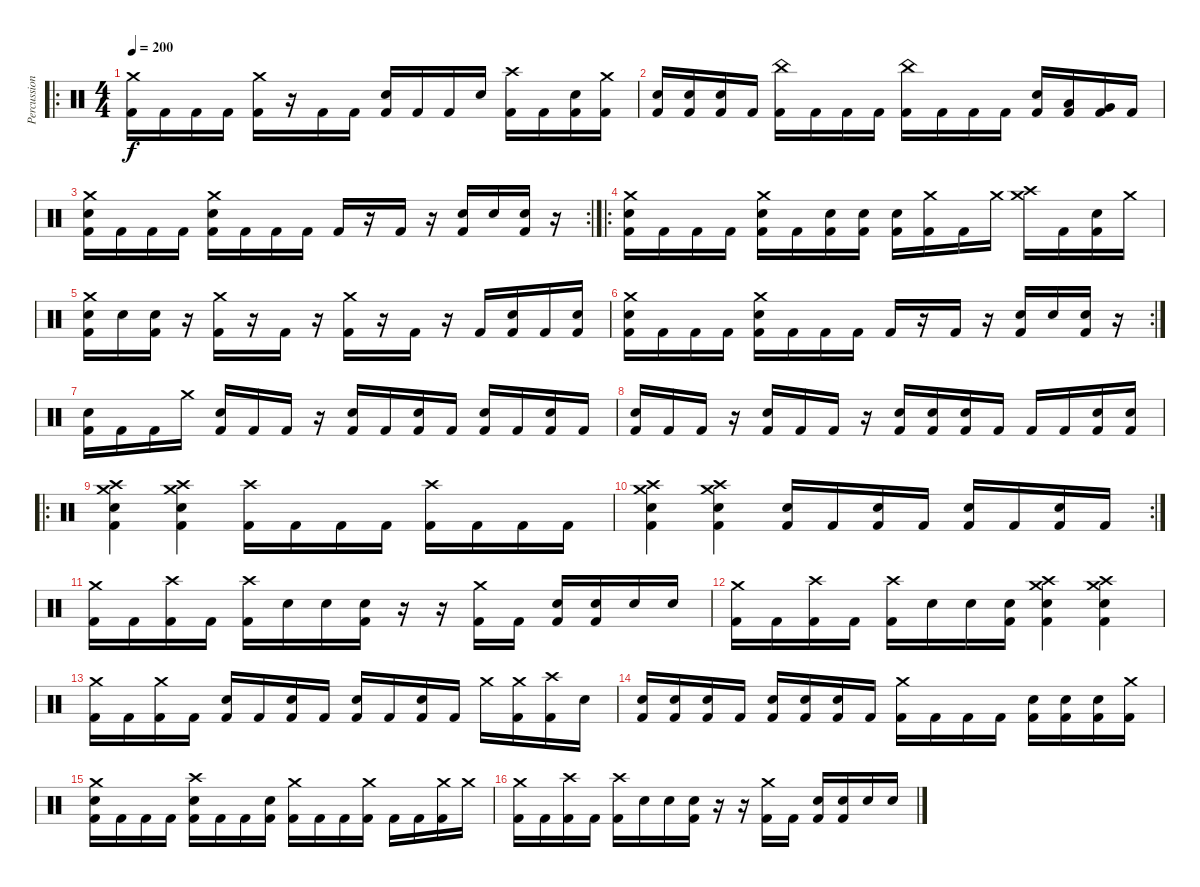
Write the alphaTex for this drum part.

\track ("Percussion" "Percussion") {instrument percussion}
\staff {score}
\articulation defaults
\ro
\ts (4 4)
\tempo 200
\clef neutral
\ks c
("Crash medium (hit)" "Kick (hit) 2").16{dy f} "Kick (hit) 2".16 "Kick (hit) 2".16 "Kick (hit) 2".16 ("Crash medium (hit)" "Kick (hit) 2").16 r.16 "Kick (hit) 2".16 "Kick (hit) 2".16 ("Snare (hit) 2" "Kick (hit) 2").16 "Kick (hit) 2".16 "Kick (hit) 2".16 "Snare (hit) 2".16 ("Crash high (hit)" "Kick (hit) 2").16 "Kick (hit) 2".16 ("Snare (hit) 2" "Kick (hit) 2").16 ("Crash medium (hit)" "Kick (hit) 2").16 |
("Snare (hit) 2" "Kick (hit) 2").16 ("Snare (hit) 2" "Kick (hit) 2").16 ("Snare (hit) 2" "Kick (hit) 2").16 "Kick (hit) 2".16 ("China (hit)" "Kick (hit) 2").16 "Kick (hit) 2".16 "Kick (hit) 2".16 "Kick (hit) 2".16 ("China (hit)" "Kick (hit) 2").16 "Kick (hit) 2".16 "Kick (hit) 2".16 "Kick (hit) 2".16 ("Snare (hit) 2" "Kick (hit) 2").16 ("Low Tom (hit)" "Kick (hit) 2").16 ("Very Low Tom (hit)" "Kick (hit) 2").16 "Kick (hit) 2".16 |
\rc 2
("Crash medium (hit)" "Snare (hit) 2" "Kick (hit) 2").16 "Kick (hit) 2".16 "Kick (hit) 2".16 "Kick (hit) 2".16 ("Crash medium (hit)" "Snare (hit) 2" "Kick (hit) 2").16 "Kick (hit) 2".16 "Kick (hit) 2".16 "Kick (hit) 2".16 "Kick (hit) 2".16 r.16 "Kick (hit) 2".16 r.16 ("Snare (hit) 2" "Kick (hit) 2").16 "Snare (hit) 2".16 ("Snare (hit) 2" "Kick (hit) 2").16 r.16 |
\ro
("Crash medium (hit)" "Snare (hit) 2" "Kick (hit) 2").16 "Kick (hit) 2".16 "Kick (hit) 2".16 "Kick (hit) 2".16 ("Crash medium (hit)" "Snare (hit) 2" "Kick (hit) 2").16 "Kick (hit) 2".16 ("Snare (hit) 2" "Kick (hit) 2").16 ("Snare (hit) 2" "Kick (hit) 2").16 ("Snare (hit) 2" "Kick (hit) 2").16 ("Crash medium (hit)" "Kick (hit) 2").16 "Kick (hit) 2".16 "Crash medium (hit)".16 ("Crash high (hit)" "Crash medium (hit)").16 "Kick (hit) 2".16 ("Snare (hit) 2" "Kick (hit) 2").16 "Crash medium (hit)".16 |
("Crash medium (hit)" "Snare (hit) 2" "Kick (hit) 2").16 "Snare (hit) 2".16 ("Snare (hit) 2" "Kick (hit) 2").16 r.16 ("Crash medium (hit)" "Kick (hit) 2").16 r.16 "Kick (hit) 2".16 r.16 ("Crash medium (hit)" "Kick (hit) 2").16 r.16 "Kick (hit) 2".16 r.16 "Kick (hit) 2".16 ("Snare (hit) 2" "Kick (hit) 2").16 "Kick (hit) 2".16 ("Snare (hit) 2" "Kick (hit) 2").16 |
\rc 2
("Crash medium (hit)" "Snare (hit) 2" "Kick (hit) 2").16 "Kick (hit) 2".16 "Kick (hit) 2".16 "Kick (hit) 2".16 ("Crash medium (hit)" "Snare (hit) 2" "Kick (hit) 2").16 "Kick (hit) 2".16 "Kick (hit) 2".16 "Kick (hit) 2".16 "Kick (hit) 2".16 r.16 "Kick (hit) 2".16 r.16 ("Snare (hit) 2" "Kick (hit) 2").16 "Snare (hit) 2".16 ("Snare (hit) 2" "Kick (hit) 2").16 r.16 |
("Snare (hit) 2" "Kick (hit) 2").16 "Kick (hit) 2".16 "Kick (hit) 2".16 "Crash medium (hit)".16 ("Snare (hit) 2" "Kick (hit) 2").16 "Kick (hit) 2".16 "Kick (hit) 2".16 r.16 ("Snare (hit) 2" "Kick (hit) 2").16 "Kick (hit) 2".16 ("Snare (hit) 2" "Kick (hit) 2").16 "Kick (hit) 2".16 ("Snare (hit) 2" "Kick (hit) 2").16 "Kick (hit) 2".16 ("Snare (hit) 2" "Kick (hit) 2").16 "Kick (hit) 2".16 |
("Snare (hit) 2" "Kick (hit) 2").16 "Kick (hit) 2".16 "Kick (hit) 2".16 r.16 ("Snare (hit) 2" "Kick (hit) 2").16 "Kick (hit) 2".16 "Kick (hit) 2".16 r.16 ("Snare (hit) 2" "Kick (hit) 2").16 ("Snare (hit) 2" "Kick (hit) 2").16 ("Snare (hit) 2" "Kick (hit) 2").16 "Kick (hit) 2".16 "Kick (hit) 2".16 "Kick (hit) 2".16 ("Snare (hit) 2" "Kick (hit) 2").16 ("Snare (hit) 2" "Kick (hit) 2").16 |
\ro
("Snare (hit) 2" "Crash high (hit)" "Crash medium (hit)" "Kick (hit) 2").4 ("Snare (hit) 2" "Crash high (hit)" "Crash medium (hit)" "Kick (hit) 2").4 ("Crash high (hit)" "Kick (hit) 2").16 "Kick (hit) 2".16 "Kick (hit) 2".16 "Kick (hit) 2".16 ("Crash high (hit)" "Kick (hit) 2").16 "Kick (hit) 2".16 "Kick (hit) 2".16 "Kick (hit) 2".16 |
\rc 2
("Snare (hit) 2" "Crash high (hit)" "Crash medium (hit)" "Kick (hit) 2").4 ("Snare (hit) 2" "Crash high (hit)" "Crash medium (hit)" "Kick (hit) 2").4 ("Snare (hit) 2" "Kick (hit) 2").16 "Kick (hit) 2".16 ("Snare (hit) 2" "Kick (hit) 2").16 "Kick (hit) 2".16 ("Snare (hit) 2" "Kick (hit) 2").16 "Kick (hit) 2".16 ("Snare (hit) 2" "Kick (hit) 2").16 "Kick (hit) 2".16 |
("Crash medium (hit)" "Kick (hit) 2").16 "Kick (hit) 2".16 ("Crash high (hit)" "Kick (hit) 2").16 "Kick (hit) 2".16 ("Crash high (hit)" "Kick (hit) 2").16 "Snare (hit) 2".16 "Snare (hit) 2".16 ("Snare (hit) 2" "Kick (hit) 2").16 r.16 r.16 ("Crash medium (hit)" "Kick (hit) 2").16 "Kick (hit) 2".16 ("Snare (hit) 2" "Kick (hit) 2").16 ("Snare (hit) 2" "Kick (hit) 2").16 "Snare (hit) 2".16 "Snare (hit) 2".16 |
("Crash medium (hit)" "Kick (hit) 2").16 "Kick (hit) 2".16 ("Crash high (hit)" "Kick (hit) 2").16 "Kick (hit) 2".16 ("Crash high (hit)" "Kick (hit) 2").16 "Snare (hit) 2".16 "Snare (hit) 2".16 ("Snare (hit) 2" "Kick (hit) 2").16 ("Snare (hit) 2" "Crash high (hit)" "Crash medium (hit)" "Kick (hit) 2").4 ("Snare (hit) 2" "Crash high (hit)" "Crash medium (hit)" "Kick (hit) 2").4 |
("Crash medium (hit)" "Kick (hit) 2").16 "Kick (hit) 2".16 ("Crash medium (hit)" "Kick (hit) 2").16 "Kick (hit) 2".16 ("Snare (hit) 2" "Kick (hit) 2").16 "Kick (hit) 2".16 ("Snare (hit) 2" "Kick (hit) 2").16 "Kick (hit) 2".16 ("Snare (hit) 2" "Kick (hit) 2").16 "Kick (hit) 2".16 ("Snare (hit) 2" "Kick (hit) 2").16 "Kick (hit) 2".16 "Crash medium (hit)".16 ("Crash medium (hit)" "Kick (hit) 2").16 ("Crash high (hit)" "Kick (hit) 2").16 "Snare (hit) 2".16 |
("Snare (hit) 2" "Kick (hit) 2").16 ("Snare (hit) 2" "Kick (hit) 2").16 ("Snare (hit) 2" "Kick (hit) 2").16 "Kick (hit) 2".16 ("Snare (hit) 2" "Kick (hit) 2").16 ("Snare (hit) 2" "Kick (hit) 2").16 ("Snare (hit) 2" "Kick (hit) 2").16 "Kick (hit) 2".16 ("Crash medium (hit)" "Kick (hit) 2").16 "Kick (hit) 2".16 "Kick (hit) 2".16 "Kick (hit) 2".16 ("Snare (hit) 2" "Kick (hit) 2").16 ("Snare (hit) 2" "Kick (hit) 2").16 ("Snare (hit) 2" "Kick (hit) 2").16 ("Crash medium (hit)" "Kick (hit) 2").16 |
("Snare (hit) 2" "Crash medium (hit)" "Kick (hit) 2").16 "Kick (hit) 2".16 "Kick (hit) 2".16 "Kick (hit) 2".16 ("Snare (hit) 2" "Crash high (hit)" "Kick (hit) 2").16 "Kick (hit) 2".16 "Kick (hit) 2".16 ("Snare (hit) 2" "Kick (hit) 2").16 ("Crash medium (hit)" "Kick (hit) 2").16 "Kick (hit) 2".16 "Kick (hit) 2".16 ("Crash medium (hit)" "Kick (hit) 2").16 "Kick (hit) 2".16 "Kick (hit) 2".16 ("Crash medium (hit)" "Kick (hit) 2").16 "Crash medium (hit)".16 |
("Crash medium (hit)" "Kick (hit) 2").16 "Kick (hit) 2".16 ("Crash high (hit)" "Kick (hit) 2").16 "Kick (hit) 2".16 ("Crash high (hit)" "Kick (hit) 2").16 "Snare (hit) 2".16 "Snare (hit) 2".16 ("Snare (hit) 2" "Kick (hit) 2").16 r.16 r.16 ("Crash medium (hit)" "Kick (hit) 2").16 "Kick (hit) 2".16 ("Snare (hit) 2" "Kick (hit) 2").16 ("Snare (hit) 2" "Kick (hit) 2").16 "Snare (hit) 2".16 "Snare (hit) 2".16
